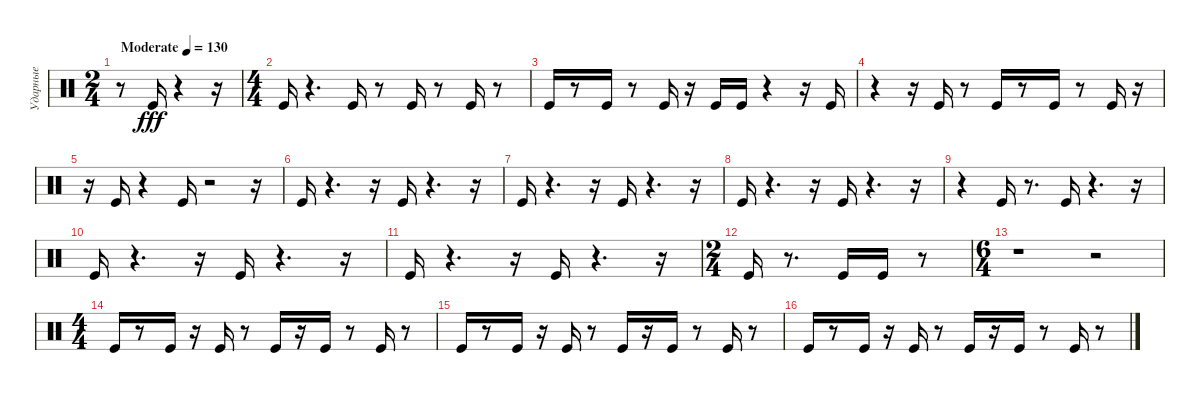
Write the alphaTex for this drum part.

\track ("Ударные" "Ударные") {instrument percussion}
\staff {score}
\articulation defaults
\ts (2 4)
\tempo (130 "Moderate")
\clef neutral
\ks c
r.8{dy fff} "Kick (hit)".16 r.4 r.16 |
\ts (4 4)
"Kick (hit)".16 r.4{d} "Kick (hit)".16 r.8 "Kick (hit)".16 r.8 "Kick (hit)".16 r.8 |
"Kick (hit)".16 r.8 "Kick (hit)".16 r.8 "Kick (hit)".16 r.16 "Kick (hit)".16 "Kick (hit)".16 r.4 r.16 "Kick (hit)".16 |
r.4 r.16 "Kick (hit)".16 r.8 "Kick (hit)".16 r.8 "Kick (hit)".16 r.8 "Kick (hit)".16 r.16 |
r.16 "Kick (hit)".16 r.4 "Kick (hit)".16 r.2 r.16 |
"Kick (hit)".16 r.4{d} r.16 "Kick (hit)".16 r.4{d} r.16 |
"Kick (hit)".16 r.4{d} r.16 "Kick (hit)".16 r.4{d} r.16 |
"Kick (hit)".16 r.4{d} r.16 "Kick (hit)".16 r.4{d} r.16 |
r.4 "Kick (hit)".16 r.8{d} "Kick (hit)".16 r.4{d} r.16 |
"Kick (hit)".16 r.4{d} r.16 "Kick (hit)".16 r.4{d} r.16 |
"Kick (hit)".16 r.4{d} r.16 "Kick (hit)".16 r.4{d} r.16 |
\ts (2 4)
"Kick (hit)".16 r.8{d} "Kick (hit)".16 "Kick (hit)".16 r.8 |
\ts (6 4)
r.1 r.2 |
\ts (4 4)
"Kick (hit)".16 r.8 "Kick (hit)".16 r.16 "Kick (hit)".16 r.8 "Kick (hit)".16 r.16 "Kick (hit)".16 r.8 "Kick (hit)".16 r.8 |
"Kick (hit)".16 r.8 "Kick (hit)".16 r.16 "Kick (hit)".16 r.8 "Kick (hit)".16 r.16 "Kick (hit)".16 r.8 "Kick (hit)".16 r.8 |
"Kick (hit)".16 r.8 "Kick (hit)".16 r.16 "Kick (hit)".16 r.8 "Kick (hit)".16 r.16 "Kick (hit)".16 r.8 "Kick (hit)".16 r.8
